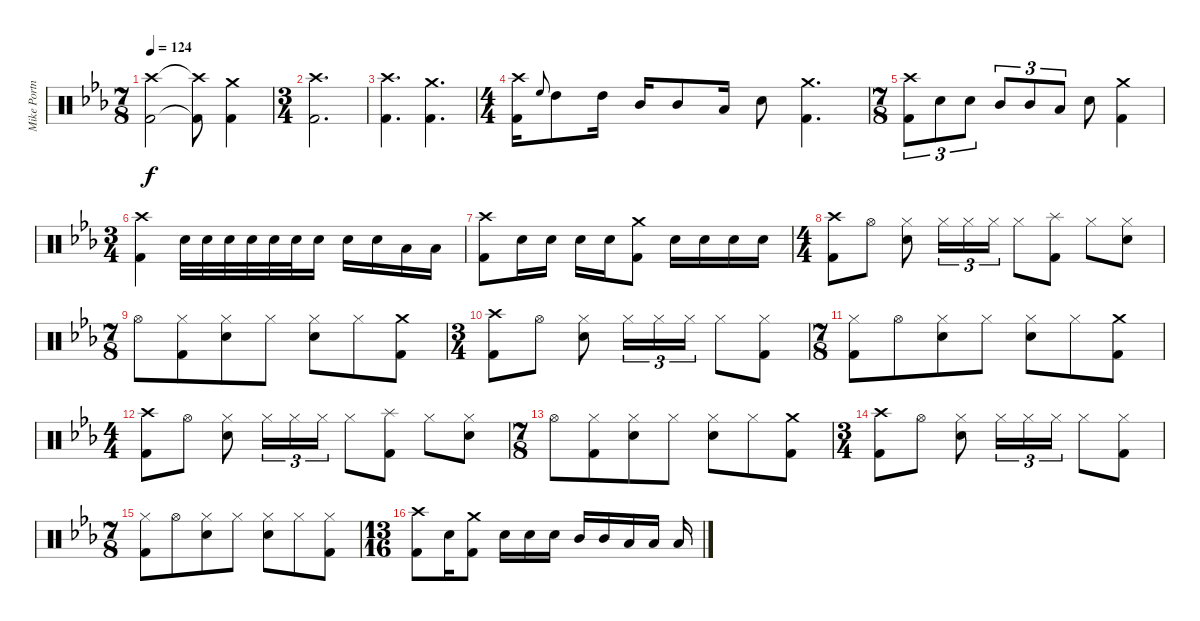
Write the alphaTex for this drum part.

\track ("Mike Portnoy" "Mike Portn") {instrument percussion}
\staff {score}
\articulation defaults
\ts (7 8)
\tempo 124
\clef neutral
\ks eb
("Crash high (hit)" "Kick (hit) 2").2{dy f} ("Crash high (hit)"{t} "Kick (hit) 2"{t}).8 ("Crash medium (hit)" "Kick (hit) 2").4 |
\ts (3 4)
("Crash high (hit)" "Kick (hit) 2").2{d} |
("Crash high (hit)" "Kick (hit) 2").4{d} ("Crash medium (hit)" "Kick (hit) 2").4{d} |
\ts (4 4)
("Crash high (hit)" "Kick (hit) 2").16 "High Floor Tom (hit)".8{gr onbeat} "High Tom (hit)".8 "High Tom (hit)".16 "Mid Tom (hit)".16 "Mid Tom (hit)".8 "Low Tom (hit)".16 "Snare (hit) 2".8 ("Crash medium (hit)" "Kick (hit) 2").4{d} |
\ts (7 8)
("Crash high (hit)" "Kick (hit) 2").8{tu (3 2)} "Snare (hit) 2".8{tu (3 2)} "Snare (hit) 2".8{tu (3 2)} "Mid Tom (hit)".8{tu (3 2)} "Mid Tom (hit)".8{tu (3 2)} "Low Tom (hit)".8{tu (3 2)} "Snare (hit) 2".8 ("Crash medium (hit)" "Kick (hit) 2").4 |
\ts (3 4)
("Crash high (hit)" "Kick (hit) 2").4 "Snare (hit) 2".32 "Snare (hit) 2".32 "Snare (hit) 2".32 "Snare (hit) 2".32 "Snare (hit) 2".32 "Snare (hit) 2".32 "Snare (hit) 2".16 "Snare (hit) 2".16 "Snare (hit) 2".16 "Low Tom (hit)".16 "Low Tom (hit)".16 |
("Crash high (hit)" "Kick (hit) 2").8 "Snare (hit) 2".16 "Snare (hit) 2".16 "Snare (hit) 2".16 "Snare (hit) 2".16 ("Crash medium (hit)" "Kick (hit) 2").8 "Snare (hit) 2".16 "Snare (hit) 2".16 "Snare (hit) 2".16 "Snare (hit) 2".16 |
\ts (4 4)
("Crash high (hit)" "Kick (hit) 2").8 "Hi-Hat (open)".8 ("Hi-Hat (closed)" "Snare (hit) 2").8 "Hi-Hat (closed)".16{tu (3 2)} "Hi-Hat (closed)".16{tu (3 2)} "Hi-Hat (closed)".16{tu (3 2)} "Hi-Hat (closed)".8 ("Splash (hit)" "Kick (hit) 2").8 "Hi-Hat (closed)".8 ("Hi-Hat (closed)" "Snare (hit) 2").8 |
\ts (7 8)
"Hi-Hat (open)".8 ("Hi-Hat (closed)" "Kick (hit) 2").8 ("Hi-Hat (closed)" "Snare (hit) 2").8 "Hi-Hat (closed)".8 ("Hi-Hat (closed)" "Snare (hit) 2").8 "Hi-Hat (closed)".8 ("Crash medium (hit)" "Kick (hit) 2").8 |
\ts (3 4)
("Crash high (hit)" "Kick (hit) 2").8 "Hi-Hat (open)".8 ("Hi-Hat (closed)" "Snare (hit) 2").8 "Hi-Hat (closed)".16{tu (3 2)} "Hi-Hat (closed)".16{tu (3 2)} "Hi-Hat (closed)".16{tu (3 2)} "Hi-Hat (closed)".8 ("Hi-Hat (closed)" "Kick (hit) 2").8 |
\ts (7 8)
("Hi-Hat (closed)" "Kick (hit) 2").8 "Hi-Hat (open)".8 ("Hi-Hat (closed)" "Snare (hit) 2").8 "Hi-Hat (closed)".8 ("Hi-Hat (closed)" "Snare (hit) 2").8 "Hi-Hat (closed)".8 ("Crash medium (hit)" "Kick (hit) 2").8 |
\ts (4 4)
("Crash high (hit)" "Kick (hit) 2").8 "Hi-Hat (open)".8 ("Hi-Hat (closed)" "Snare (hit) 2").8 "Hi-Hat (closed)".16{tu (3 2)} "Hi-Hat (closed)".16{tu (3 2)} "Hi-Hat (closed)".16{tu (3 2)} "Hi-Hat (closed)".8 ("Splash (hit)" "Kick (hit) 2").8 "Hi-Hat (closed)".8 ("Hi-Hat (closed)" "Snare (hit) 2").8 |
\ts (7 8)
"Hi-Hat (open)".8 ("Hi-Hat (closed)" "Kick (hit) 2").8 ("Hi-Hat (closed)" "Snare (hit) 2").8 "Hi-Hat (closed)".8 ("Hi-Hat (closed)" "Snare (hit) 2").8 "Hi-Hat (closed)".8 ("Crash medium (hit)" "Kick (hit) 2").8 |
\ts (3 4)
("Crash high (hit)" "Kick (hit) 2").8 "Hi-Hat (open)".8 ("Hi-Hat (closed)" "Snare (hit) 2").8 "Hi-Hat (closed)".16{tu (3 2)} "Hi-Hat (closed)".16{tu (3 2)} "Hi-Hat (closed)".16{tu (3 2)} "Hi-Hat (closed)".8 ("Hi-Hat (closed)" "Kick (hit) 2").8 |
\ts (7 8)
("Hi-Hat (closed)" "Kick (hit) 2").8 "Hi-Hat (open)".8 ("Hi-Hat (closed)" "Snare (hit) 2").8 "Hi-Hat (closed)".8 ("Hi-Hat (closed)" "Snare (hit) 2").8 "Hi-Hat (closed)".8 ("Hi-Hat (closed)" "Kick (hit) 2").8 |
\ts (13 16)
("Crash high (hit)" "Kick (hit) 2").8 "Snare (hit) 2".16 ("Crash medium (hit)" "Kick (hit) 2").8 "Snare (hit) 2".16 "Snare (hit) 2".16 "Snare (hit) 2".16 "Mid Tom (hit)".16 "Mid Tom (hit)".16 "Low Tom (hit)".16 "Low Tom (hit)".16 "Low Tom (hit)".16
